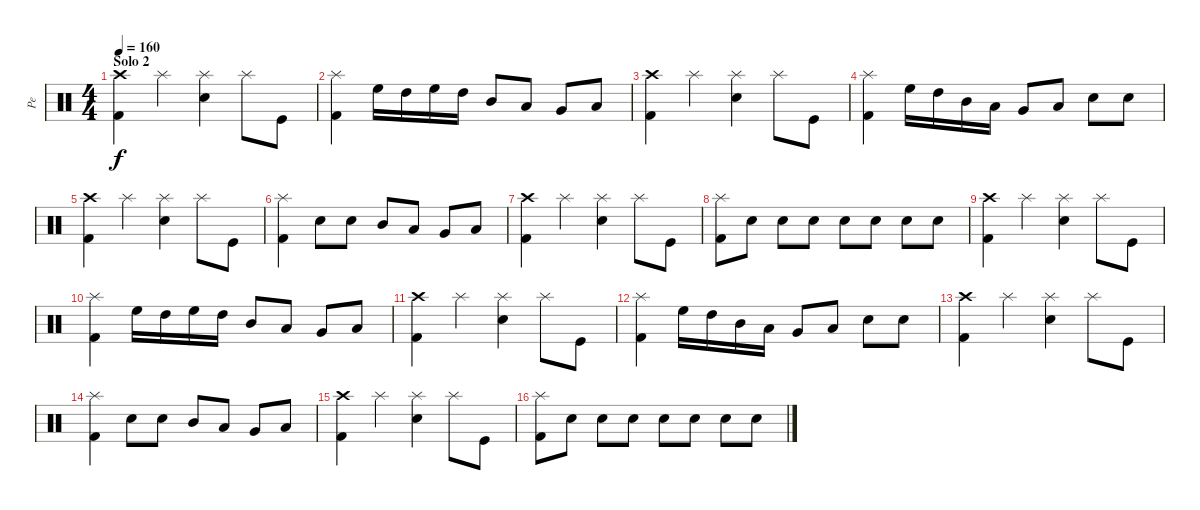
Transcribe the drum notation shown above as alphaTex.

\track ("Pe" "Pe") {instrument percussion}
\staff {score}
\articulation defaults
\ts (4 4)
\section ("" "Solo 2")
\tempo 160
\clef neutral
\ks c
("Kick (hit) 2" "Crash high (hit)").4{dy f} "Splash (hit)".4 ("Electric Snare (hit)" "Splash (hit)").4 "Splash (hit)".8 "Kick (hit)".8 |
("Kick (hit) 2" "Splash (hit)").4 "High Floor Tom (hit)".16 "High Tom (hit)".16 "High Floor Tom (hit)".16 "High Tom (hit)".16 "Mid Tom (hit)".8 "Low Tom (hit)".8 "Very Low Tom (hit)".8 "Low Floor Tom (hit)".8 |
("Kick (hit) 2" "Crash high (hit)").4 "Splash (hit)".4 ("Electric Snare (hit)" "Splash (hit)").4 "Splash (hit)".8 "Kick (hit)".8 |
("Kick (hit) 2" "Splash (hit)").4 "High Floor Tom (hit)".16 "High Tom (hit)".16 "Mid Tom (hit)".16 "Low Tom (hit)".16 "Very Low Tom (hit)".8 "Low Floor Tom (hit)".8 "Electric Snare (hit)".8 "Electric Snare (hit)".8 |
("Kick (hit) 2" "Crash high (hit)").4 "Splash (hit)".4 ("Electric Snare (hit)" "Splash (hit)").4 "Splash (hit)".8 "Kick (hit)".8 |
("Kick (hit) 2" "Splash (hit)").4 "Electric Snare (hit)".8 "Electric Snare (hit)".8 "Mid Tom (hit)".8 "Low Tom (hit)".8 "Very Low Tom (hit)".8 "Low Floor Tom (hit)".8 |
("Kick (hit) 2" "Crash high (hit)").4 "Splash (hit)".4 ("Electric Snare (hit)" "Splash (hit)").4 "Splash (hit)".8 "Kick (hit)".8 |
("Kick (hit) 2" "Splash (hit)").8 "Electric Snare (hit)".8 "Electric Snare (hit)".8 "Electric Snare (hit)".8 "Electric Snare (hit)".8 "Electric Snare (hit)".8 "Electric Snare (hit)".8 "Electric Snare (hit)".8 |
("Kick (hit) 2" "Crash high (hit)").4 "Splash (hit)".4 ("Electric Snare (hit)" "Splash (hit)").4 "Splash (hit)".8 "Kick (hit)".8 |
("Kick (hit) 2" "Splash (hit)").4 "High Floor Tom (hit)".16 "High Tom (hit)".16 "High Floor Tom (hit)".16 "High Tom (hit)".16 "Mid Tom (hit)".8 "Low Tom (hit)".8 "Very Low Tom (hit)".8 "Low Floor Tom (hit)".8 |
("Kick (hit) 2" "Crash high (hit)").4 "Splash (hit)".4 ("Electric Snare (hit)" "Splash (hit)").4 "Splash (hit)".8 "Kick (hit)".8 |
("Kick (hit) 2" "Splash (hit)").4 "High Floor Tom (hit)".16 "High Tom (hit)".16 "Mid Tom (hit)".16 "Low Tom (hit)".16 "Very Low Tom (hit)".8 "Low Floor Tom (hit)".8 "Electric Snare (hit)".8 "Electric Snare (hit)".8 |
("Kick (hit) 2" "Crash high (hit)").4 "Splash (hit)".4 ("Electric Snare (hit)" "Splash (hit)").4 "Splash (hit)".8 "Kick (hit)".8 |
("Kick (hit) 2" "Splash (hit)").4 "Electric Snare (hit)".8 "Electric Snare (hit)".8 "Mid Tom (hit)".8 "Low Tom (hit)".8 "Very Low Tom (hit)".8 "Low Floor Tom (hit)".8 |
("Kick (hit) 2" "Crash high (hit)").4 "Splash (hit)".4 ("Electric Snare (hit)" "Splash (hit)").4 "Splash (hit)".8 "Kick (hit)".8 |
("Kick (hit) 2" "Splash (hit)").8 "Electric Snare (hit)".8 "Electric Snare (hit)".8 "Electric Snare (hit)".8 "Electric Snare (hit)".8 "Electric Snare (hit)".8 "Electric Snare (hit)".8 "Electric Snare (hit)".8
